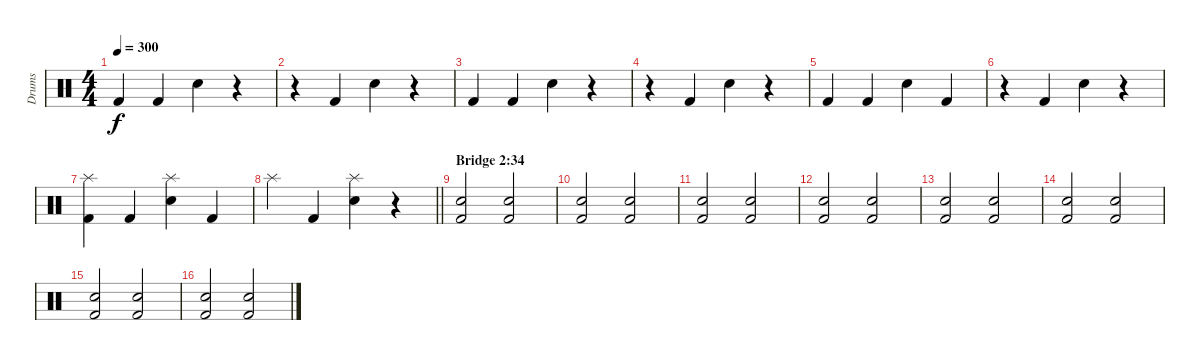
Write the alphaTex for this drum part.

\track ("Drums" "Drums") {instrument percussion}
\staff {score}
\articulation defaults
\ts (4 4)
\tempo 300
\clef neutral
\ks c "Kick (hit) 2".4{dy f} "Kick (hit) 2".4 "Snare (hit) 2".4
r.4 |
r.4 "Kick (hit) 2".4 "Snare (hit) 2".4 r.4 |
"Kick (hit) 2".4 "Kick (hit) 2".4 "Snare (hit) 2".4 r.4 |
r.4 "Kick (hit) 2".4 "Snare (hit) 2".4 r.4 |
"Kick (hit) 2".4 "Kick (hit) 2".4 "Snare (hit) 2".4 "Kick (hit) 2".4 |
r.4 "Kick (hit) 2".4 "Snare (hit) 2".4 r.4 |
("Splash (hit)" "Kick (hit) 2").4 "Kick (hit) 2".4 ("Splash (hit)" "Snare (hit) 2").4 "Kick (hit) 2".4 |
\barLineRight lightlight "Splash (hit)".4 "Kick (hit) 2".4
("Splash (hit)" "Snare (hit) 2").4 r.4 |
\section ("" "Bridge 2:34")
("Electric Snare (hit)" "Kick (hit) 2").2 ("Electric Snare (hit)" "Kick (hit) 2").2 |
("Electric Snare (hit)" "Kick (hit) 2").2 ("Electric Snare (hit)" "Kick (hit) 2").2 |
("Electric Snare (hit)" "Kick (hit) 2").2 ("Electric Snare (hit)" "Kick (hit) 2").2 |
("Electric Snare (hit)" "Kick (hit) 2").2 ("Electric Snare (hit)" "Kick (hit) 2").2 |
("Electric Snare (hit)" "Kick (hit) 2").2 ("Electric Snare (hit)" "Kick (hit) 2").2 |
("Electric Snare (hit)" "Kick (hit) 2").2 ("Electric Snare (hit)" "Kick (hit) 2").2 |
("Electric Snare (hit)" "Kick (hit) 2").2 ("Electric Snare (hit)" "Kick (hit) 2").2 |
("Electric Snare (hit)" "Kick (hit) 2").2 ("Electric Snare (hit)" "Kick (hit) 2").2
